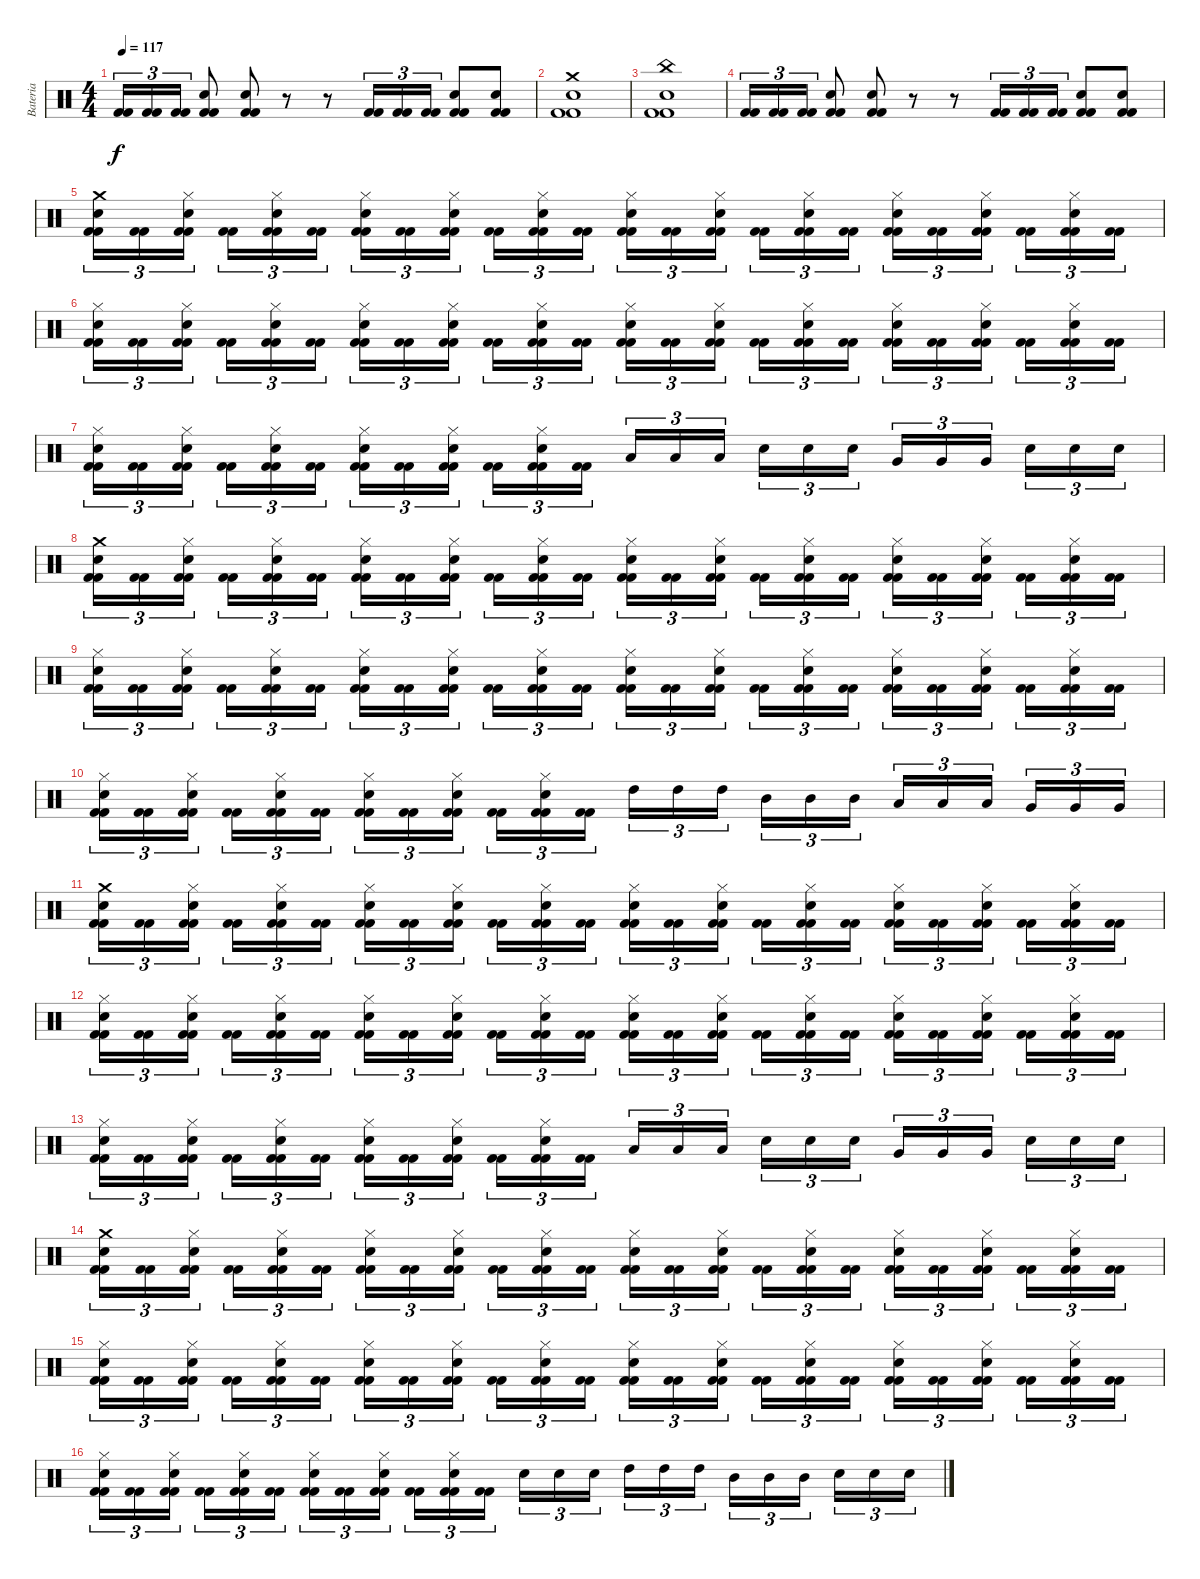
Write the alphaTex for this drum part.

\track ("Bateria" "Bateria") {instrument percussion}
\staff {score}
\articulation defaults
\ts (4 4)
\tempo 117
\clef neutral
\ks c
("Kick (hit) 2" "Kick (hit) 2").16{tu (3 2) dy f} ("Kick (hit) 2" "Kick (hit) 2").16{tu (3 2)} ("Kick (hit) 2" "Kick (hit) 2").16{tu (3 2)} ("Kick (hit) 2" "Kick (hit) 2" "Snare (hit) 2").8 ("Kick (hit) 2" "Kick (hit) 2" "Snare (hit) 2").8 r.8 r.8 ("Kick (hit) 2" "Kick (hit) 2").16{tu (3 2)} ("Kick (hit) 2" "Kick (hit) 2").16{tu (3 2)} ("Kick (hit) 2" "Kick (hit) 2").16{tu (3 2)} ("Kick (hit) 2" "Kick (hit) 2" "Snare (hit) 2").8 ("Kick (hit) 2" "Kick (hit) 2" "Snare (hit) 2").8 |
("Kick (hit) 2" "Kick (hit) 2" "Snare (hit) 2" "Crash medium (hit)").1 |
("Kick (hit) 2" "Kick (hit) 2" "Snare (hit) 2" "China (hit)").1 |
("Kick (hit) 2" "Kick (hit) 2").16{tu (3 2)} ("Kick (hit) 2" "Kick (hit) 2").16{tu (3 2)} ("Kick (hit) 2" "Kick (hit) 2").16{tu (3 2)} ("Kick (hit) 2" "Kick (hit) 2" "Snare (hit) 2").8 ("Kick (hit) 2" "Kick (hit) 2" "Snare (hit) 2").8 r.8 r.8 ("Kick (hit) 2" "Kick (hit) 2").16{tu (3 2)} ("Kick (hit) 2" "Kick (hit) 2").16{tu (3 2)} ("Kick (hit) 2" "Kick (hit) 2").16{tu (3 2)} ("Kick (hit) 2" "Kick (hit) 2" "Snare (hit) 2").8 ("Kick (hit) 2" "Kick (hit) 2" "Snare (hit) 2").8 |
("Kick (hit) 2" "Kick (hit) 2" "Snare (hit) 2" "Crash medium (hit)").16{tu (3 2)} ("Kick (hit) 2" "Kick (hit) 2").16{tu (3 2)} ("Kick (hit) 2" "Kick (hit) 2" "Snare (hit) 2" "Hi-Hat (closed)").16{tu (3 2)} ("Kick (hit) 2" "Kick (hit) 2").16{tu (3 2)} ("Kick (hit) 2" "Kick (hit) 2" "Snare (hit) 2" "Hi-Hat (closed)").16{tu (3 2)} ("Kick (hit) 2" "Kick (hit) 2").16{tu (3 2)} ("Kick (hit) 2" "Kick (hit) 2" "Snare (hit) 2" "Hi-Hat (closed)").16{tu (3 2)} ("Kick (hit) 2" "Kick (hit) 2").16{tu (3 2)} ("Kick (hit) 2" "Kick (hit) 2" "Snare (hit) 2" "Hi-Hat (closed)").16{tu (3 2)} ("Kick (hit) 2" "Kick (hit) 2").16{tu (3 2)} ("Kick (hit) 2" "Kick (hit) 2" "Snare (hit) 2" "Hi-Hat (closed)").16{tu (3 2)} ("Kick (hit) 2" "Kick (hit) 2").16{tu (3 2)} ("Kick (hit) 2" "Kick (hit) 2" "Snare (hit) 2" "Hi-Hat (closed)").16{tu (3 2)} ("Kick (hit) 2" "Kick (hit) 2").16{tu (3 2)} ("Kick (hit) 2" "Kick (hit) 2" "Snare (hit) 2" "Hi-Hat (closed)").16{tu (3 2)} ("Kick (hit) 2" "Kick (hit) 2").16{tu (3 2)} ("Kick (hit) 2" "Kick (hit) 2" "Snare (hit) 2" "Hi-Hat (closed)").16{tu (3 2)} ("Kick (hit) 2" "Kick (hit) 2").16{tu (3 2)} ("Kick (hit) 2" "Kick (hit) 2" "Snare (hit) 2" "Hi-Hat (closed)").16{tu (3 2)} ("Kick (hit) 2" "Kick (hit) 2").16{tu (3 2)} ("Kick (hit) 2" "Kick (hit) 2" "Snare (hit) 2" "Hi-Hat (closed)").16{tu (3 2)} ("Kick (hit) 2" "Kick (hit) 2").16{tu (3 2)} ("Kick (hit) 2" "Kick (hit) 2" "Snare (hit) 2" "Hi-Hat (closed)").16{tu (3 2)} ("Kick (hit) 2" "Kick (hit) 2").16{tu (3 2)} |
("Kick (hit) 2" "Kick (hit) 2" "Snare (hit) 2" "Hi-Hat (closed)").16{tu (3 2)} ("Kick (hit) 2" "Kick (hit) 2").16{tu (3 2)} ("Kick (hit) 2" "Kick (hit) 2" "Snare (hit) 2" "Hi-Hat (closed)").16{tu (3 2)} ("Kick (hit) 2" "Kick (hit) 2").16{tu (3 2)} ("Kick (hit) 2" "Kick (hit) 2" "Snare (hit) 2" "Hi-Hat (closed)").16{tu (3 2)} ("Kick (hit) 2" "Kick (hit) 2").16{tu (3 2)} ("Kick (hit) 2" "Kick (hit) 2" "Snare (hit) 2" "Hi-Hat (closed)").16{tu (3 2)} ("Kick (hit) 2" "Kick (hit) 2").16{tu (3 2)} ("Kick (hit) 2" "Kick (hit) 2" "Snare (hit) 2" "Hi-Hat (closed)").16{tu (3 2)} ("Kick (hit) 2" "Kick (hit) 2").16{tu (3 2)} ("Kick (hit) 2" "Kick (hit) 2" "Snare (hit) 2" "Hi-Hat (closed)").16{tu (3 2)} ("Kick (hit) 2" "Kick (hit) 2").16{tu (3 2)} ("Kick (hit) 2" "Kick (hit) 2" "Snare (hit) 2" "Hi-Hat (closed)").16{tu (3 2)} ("Kick (hit) 2" "Kick (hit) 2").16{tu (3 2)} ("Kick (hit) 2" "Kick (hit) 2" "Snare (hit) 2" "Hi-Hat (closed)").16{tu (3 2)} ("Kick (hit) 2" "Kick (hit) 2").16{tu (3 2)} ("Kick (hit) 2" "Kick (hit) 2" "Snare (hit) 2" "Hi-Hat (closed)").16{tu (3 2)} ("Kick (hit) 2" "Kick (hit) 2").16{tu (3 2)} ("Kick (hit) 2" "Kick (hit) 2" "Snare (hit) 2" "Hi-Hat (closed)").16{tu (3 2)} ("Kick (hit) 2" "Kick (hit) 2").16{tu (3 2)} ("Kick (hit) 2" "Kick (hit) 2" "Snare (hit) 2" "Hi-Hat (closed)").16{tu (3 2)} ("Kick (hit) 2" "Kick (hit) 2").16{tu (3 2)} ("Kick (hit) 2" "Kick (hit) 2" "Snare (hit) 2" "Hi-Hat (closed)").16{tu (3 2)} ("Kick (hit) 2" "Kick (hit) 2").16{tu (3 2)} |
("Kick (hit) 2" "Kick (hit) 2" "Snare (hit) 2" "Hi-Hat (closed)").16{tu (3 2)} ("Kick (hit) 2" "Kick (hit) 2").16{tu (3 2)} ("Kick (hit) 2" "Kick (hit) 2" "Snare (hit) 2" "Hi-Hat (closed)").16{tu (3 2)} ("Kick (hit) 2" "Kick (hit) 2").16{tu (3 2)} ("Kick (hit) 2" "Kick (hit) 2" "Snare (hit) 2" "Hi-Hat (closed)").16{tu (3 2)} ("Kick (hit) 2" "Kick (hit) 2").16{tu (3 2)} ("Kick (hit) 2" "Kick (hit) 2" "Snare (hit) 2" "Hi-Hat (closed)").16{tu (3 2)} ("Kick (hit) 2" "Kick (hit) 2").16{tu (3 2)} ("Kick (hit) 2" "Kick (hit) 2" "Snare (hit) 2" "Hi-Hat (closed)").16{tu (3 2)} ("Kick (hit) 2" "Kick (hit) 2").16{tu (3 2)} ("Kick (hit) 2" "Kick (hit) 2" "Snare (hit) 2" "Hi-Hat (closed)").16{tu (3 2)} ("Kick (hit) 2" "Kick (hit) 2").16{tu (3 2)} "Low Tom (hit)".16{tu (3 2)} "Low Tom (hit)".16{tu (3 2)} "Low Tom (hit)".16{tu (3 2)} "Snare (hit) 2".16{tu (3 2)} "Snare (hit) 2".16{tu (3 2)} "Snare (hit) 2".16{tu (3 2)} "Very Low Tom (hit)".16{tu (3 2)} "Very Low Tom (hit)".16{tu (3 2)} "Very Low Tom (hit)".16{tu (3 2)} "Snare (hit) 2".16{tu (3 2)} "Snare (hit) 2".16{tu (3 2)} "Snare (hit) 2".16{tu (3 2)} |
("Kick (hit) 2" "Kick (hit) 2" "Snare (hit) 2" "Crash medium (hit)").16{tu (3 2)} ("Kick (hit) 2" "Kick (hit) 2").16{tu (3 2)} ("Kick (hit) 2" "Kick (hit) 2" "Snare (hit) 2" "Hi-Hat (closed)").16{tu (3 2)} ("Kick (hit) 2" "Kick (hit) 2").16{tu (3 2)} ("Kick (hit) 2" "Kick (hit) 2" "Snare (hit) 2" "Hi-Hat (closed)").16{tu (3 2)} ("Kick (hit) 2" "Kick (hit) 2").16{tu (3 2)} ("Kick (hit) 2" "Kick (hit) 2" "Snare (hit) 2" "Hi-Hat (closed)").16{tu (3 2)} ("Kick (hit) 2" "Kick (hit) 2").16{tu (3 2)} ("Kick (hit) 2" "Kick (hit) 2" "Snare (hit) 2" "Hi-Hat (closed)").16{tu (3 2)} ("Kick (hit) 2" "Kick (hit) 2").16{tu (3 2)} ("Kick (hit) 2" "Kick (hit) 2" "Snare (hit) 2" "Hi-Hat (closed)").16{tu (3 2)} ("Kick (hit) 2" "Kick (hit) 2").16{tu (3 2)} ("Kick (hit) 2" "Kick (hit) 2" "Snare (hit) 2" "Hi-Hat (closed)").16{tu (3 2)} ("Kick (hit) 2" "Kick (hit) 2").16{tu (3 2)} ("Kick (hit) 2" "Kick (hit) 2" "Snare (hit) 2" "Hi-Hat (closed)").16{tu (3 2)} ("Kick (hit) 2" "Kick (hit) 2").16{tu (3 2)} ("Kick (hit) 2" "Kick (hit) 2" "Snare (hit) 2" "Hi-Hat (closed)").16{tu (3 2)} ("Kick (hit) 2" "Kick (hit) 2").16{tu (3 2)} ("Kick (hit) 2" "Kick (hit) 2" "Snare (hit) 2" "Hi-Hat (closed)").16{tu (3 2)} ("Kick (hit) 2" "Kick (hit) 2").16{tu (3 2)} ("Kick (hit) 2" "Kick (hit) 2" "Snare (hit) 2" "Hi-Hat (closed)").16{tu (3 2)} ("Kick (hit) 2" "Kick (hit) 2").16{tu (3 2)} ("Kick (hit) 2" "Kick (hit) 2" "Snare (hit) 2" "Hi-Hat (closed)").16{tu (3 2)} ("Kick (hit) 2" "Kick (hit) 2").16{tu (3 2)} |
("Kick (hit) 2" "Kick (hit) 2" "Snare (hit) 2" "Hi-Hat (closed)").16{tu (3 2)} ("Kick (hit) 2" "Kick (hit) 2").16{tu (3 2)} ("Kick (hit) 2" "Kick (hit) 2" "Snare (hit) 2" "Hi-Hat (closed)").16{tu (3 2)} ("Kick (hit) 2" "Kick (hit) 2").16{tu (3 2)} ("Kick (hit) 2" "Kick (hit) 2" "Snare (hit) 2" "Hi-Hat (closed)").16{tu (3 2)} ("Kick (hit) 2" "Kick (hit) 2").16{tu (3 2)} ("Kick (hit) 2" "Kick (hit) 2" "Snare (hit) 2" "Hi-Hat (closed)").16{tu (3 2)} ("Kick (hit) 2" "Kick (hit) 2").16{tu (3 2)} ("Kick (hit) 2" "Kick (hit) 2" "Snare (hit) 2" "Hi-Hat (closed)").16{tu (3 2)} ("Kick (hit) 2" "Kick (hit) 2").16{tu (3 2)} ("Kick (hit) 2" "Kick (hit) 2" "Snare (hit) 2" "Hi-Hat (closed)").16{tu (3 2)} ("Kick (hit) 2" "Kick (hit) 2").16{tu (3 2)} ("Kick (hit) 2" "Kick (hit) 2" "Snare (hit) 2" "Hi-Hat (closed)").16{tu (3 2)} ("Kick (hit) 2" "Kick (hit) 2").16{tu (3 2)} ("Kick (hit) 2" "Kick (hit) 2" "Snare (hit) 2" "Hi-Hat (closed)").16{tu (3 2)} ("Kick (hit) 2" "Kick (hit) 2").16{tu (3 2)} ("Kick (hit) 2" "Kick (hit) 2" "Snare (hit) 2" "Hi-Hat (closed)").16{tu (3 2)} ("Kick (hit) 2" "Kick (hit) 2").16{tu (3 2)} ("Kick (hit) 2" "Kick (hit) 2" "Snare (hit) 2" "Hi-Hat (closed)").16{tu (3 2)} ("Kick (hit) 2" "Kick (hit) 2").16{tu (3 2)} ("Kick (hit) 2" "Kick (hit) 2" "Snare (hit) 2" "Hi-Hat (closed)").16{tu (3 2)} ("Kick (hit) 2" "Kick (hit) 2").16{tu (3 2)} ("Kick (hit) 2" "Kick (hit) 2" "Snare (hit) 2" "Hi-Hat (closed)").16{tu (3 2)} ("Kick (hit) 2" "Kick (hit) 2").16{tu (3 2)} |
("Kick (hit) 2" "Kick (hit) 2" "Snare (hit) 2" "Hi-Hat (closed)").16{tu (3 2)} ("Kick (hit) 2" "Kick (hit) 2").16{tu (3 2)} ("Kick (hit) 2" "Kick (hit) 2" "Snare (hit) 2" "Hi-Hat (closed)").16{tu (3 2)} ("Kick (hit) 2" "Kick (hit) 2").16{tu (3 2)} ("Kick (hit) 2" "Kick (hit) 2" "Snare (hit) 2" "Hi-Hat (closed)").16{tu (3 2)} ("Kick (hit) 2" "Kick (hit) 2").16{tu (3 2)} ("Kick (hit) 2" "Kick (hit) 2" "Snare (hit) 2" "Hi-Hat (closed)").16{tu (3 2)} ("Kick (hit) 2" "Kick (hit) 2").16{tu (3 2)} ("Kick (hit) 2" "Kick (hit) 2" "Snare (hit) 2" "Hi-Hat (closed)").16{tu (3 2)} ("Kick (hit) 2" "Kick (hit) 2").16{tu (3 2)} ("Kick (hit) 2" "Kick (hit) 2" "Snare (hit) 2" "Hi-Hat (closed)").16{tu (3 2)} ("Kick (hit) 2" "Kick (hit) 2").16{tu (3 2)} "High Tom (hit)".16{tu (3 2)} "High Tom (hit)".16{tu (3 2)} "High Tom (hit)".16{tu (3 2)} "Mid Tom (hit)".16{tu (3 2)} "Mid Tom (hit)".16{tu (3 2)} "Mid Tom (hit)".16{tu (3 2)} "Low Tom (hit)".16{tu (3 2)} "Low Tom (hit)".16{tu (3 2)} "Low Tom (hit)".16{tu (3 2)} "Very Low Tom (hit)".16{tu (3 2)} "Very Low Tom (hit)".16{tu (3 2)} "Very Low Tom (hit)".16{tu (3 2)} |
("Kick (hit) 2" "Kick (hit) 2" "Snare (hit) 2" "Crash medium (hit)").16{tu (3 2)} ("Kick (hit) 2" "Kick (hit) 2").16{tu (3 2)} ("Kick (hit) 2" "Kick (hit) 2" "Snare (hit) 2" "Hi-Hat (closed)").16{tu (3 2)} ("Kick (hit) 2" "Kick (hit) 2").16{tu (3 2)} ("Kick (hit) 2" "Kick (hit) 2" "Snare (hit) 2" "Hi-Hat (closed)").16{tu (3 2)} ("Kick (hit) 2" "Kick (hit) 2").16{tu (3 2)} ("Kick (hit) 2" "Kick (hit) 2" "Snare (hit) 2" "Hi-Hat (closed)").16{tu (3 2)} ("Kick (hit) 2" "Kick (hit) 2").16{tu (3 2)} ("Kick (hit) 2" "Kick (hit) 2" "Snare (hit) 2" "Hi-Hat (closed)").16{tu (3 2)} ("Kick (hit) 2" "Kick (hit) 2").16{tu (3 2)} ("Kick (hit) 2" "Kick (hit) 2" "Snare (hit) 2" "Hi-Hat (closed)").16{tu (3 2)} ("Kick (hit) 2" "Kick (hit) 2").16{tu (3 2)} ("Kick (hit) 2" "Kick (hit) 2" "Snare (hit) 2" "Hi-Hat (closed)").16{tu (3 2)} ("Kick (hit) 2" "Kick (hit) 2").16{tu (3 2)} ("Kick (hit) 2" "Kick (hit) 2" "Snare (hit) 2" "Hi-Hat (closed)").16{tu (3 2)} ("Kick (hit) 2" "Kick (hit) 2").16{tu (3 2)} ("Kick (hit) 2" "Kick (hit) 2" "Snare (hit) 2" "Hi-Hat (closed)").16{tu (3 2)} ("Kick (hit) 2" "Kick (hit) 2").16{tu (3 2)} ("Kick (hit) 2" "Kick (hit) 2" "Snare (hit) 2" "Hi-Hat (closed)").16{tu (3 2)} ("Kick (hit) 2" "Kick (hit) 2").16{tu (3 2)} ("Kick (hit) 2" "Kick (hit) 2" "Snare (hit) 2" "Hi-Hat (closed)").16{tu (3 2)} ("Kick (hit) 2" "Kick (hit) 2").16{tu (3 2)} ("Kick (hit) 2" "Kick (hit) 2" "Snare (hit) 2" "Hi-Hat (closed)").16{tu (3 2)} ("Kick (hit) 2" "Kick (hit) 2").16{tu (3 2)} |
("Kick (hit) 2" "Kick (hit) 2" "Snare (hit) 2" "Hi-Hat (closed)").16{tu (3 2)} ("Kick (hit) 2" "Kick (hit) 2").16{tu (3 2)} ("Kick (hit) 2" "Kick (hit) 2" "Snare (hit) 2" "Hi-Hat (closed)").16{tu (3 2)} ("Kick (hit) 2" "Kick (hit) 2").16{tu (3 2)} ("Kick (hit) 2" "Kick (hit) 2" "Snare (hit) 2" "Hi-Hat (closed)").16{tu (3 2)} ("Kick (hit) 2" "Kick (hit) 2").16{tu (3 2)} ("Kick (hit) 2" "Kick (hit) 2" "Snare (hit) 2" "Hi-Hat (closed)").16{tu (3 2)} ("Kick (hit) 2" "Kick (hit) 2").16{tu (3 2)} ("Kick (hit) 2" "Kick (hit) 2" "Snare (hit) 2" "Hi-Hat (closed)").16{tu (3 2)} ("Kick (hit) 2" "Kick (hit) 2").16{tu (3 2)} ("Kick (hit) 2" "Kick (hit) 2" "Snare (hit) 2" "Hi-Hat (closed)").16{tu (3 2)} ("Kick (hit) 2" "Kick (hit) 2").16{tu (3 2)} ("Kick (hit) 2" "Kick (hit) 2" "Snare (hit) 2" "Hi-Hat (closed)").16{tu (3 2)} ("Kick (hit) 2" "Kick (hit) 2").16{tu (3 2)} ("Kick (hit) 2" "Kick (hit) 2" "Snare (hit) 2" "Hi-Hat (closed)").16{tu (3 2)} ("Kick (hit) 2" "Kick (hit) 2").16{tu (3 2)} ("Kick (hit) 2" "Kick (hit) 2" "Snare (hit) 2" "Hi-Hat (closed)").16{tu (3 2)} ("Kick (hit) 2" "Kick (hit) 2").16{tu (3 2)} ("Kick (hit) 2" "Kick (hit) 2" "Snare (hit) 2" "Hi-Hat (closed)").16{tu (3 2)} ("Kick (hit) 2" "Kick (hit) 2").16{tu (3 2)} ("Kick (hit) 2" "Kick (hit) 2" "Snare (hit) 2" "Hi-Hat (closed)").16{tu (3 2)} ("Kick (hit) 2" "Kick (hit) 2").16{tu (3 2)} ("Kick (hit) 2" "Kick (hit) 2" "Snare (hit) 2" "Hi-Hat (closed)").16{tu (3 2)} ("Kick (hit) 2" "Kick (hit) 2").16{tu (3 2)} |
("Kick (hit) 2" "Kick (hit) 2" "Snare (hit) 2" "Hi-Hat (closed)").16{tu (3 2)} ("Kick (hit) 2" "Kick (hit) 2").16{tu (3 2)} ("Kick (hit) 2" "Kick (hit) 2" "Snare (hit) 2" "Hi-Hat (closed)").16{tu (3 2)} ("Kick (hit) 2" "Kick (hit) 2").16{tu (3 2)} ("Kick (hit) 2" "Kick (hit) 2" "Snare (hit) 2" "Hi-Hat (closed)").16{tu (3 2)} ("Kick (hit) 2" "Kick (hit) 2").16{tu (3 2)} ("Kick (hit) 2" "Kick (hit) 2" "Snare (hit) 2" "Hi-Hat (closed)").16{tu (3 2)} ("Kick (hit) 2" "Kick (hit) 2").16{tu (3 2)} ("Kick (hit) 2" "Kick (hit) 2" "Snare (hit) 2" "Hi-Hat (closed)").16{tu (3 2)} ("Kick (hit) 2" "Kick (hit) 2").16{tu (3 2)} ("Kick (hit) 2" "Kick (hit) 2" "Snare (hit) 2" "Hi-Hat (closed)").16{tu (3 2)} ("Kick (hit) 2" "Kick (hit) 2").16{tu (3 2)} "Low Tom (hit)".16{tu (3 2)} "Low Tom (hit)".16{tu (3 2)} "Low Tom (hit)".16{tu (3 2)} "Snare (hit) 2".16{tu (3 2)} "Snare (hit) 2".16{tu (3 2)} "Snare (hit) 2".16{tu (3 2)} "Very Low Tom (hit)".16{tu (3 2)} "Very Low Tom (hit)".16{tu (3 2)} "Very Low Tom (hit)".16{tu (3 2)} "Snare (hit) 2".16{tu (3 2)} "Snare (hit) 2".16{tu (3 2)} "Snare (hit) 2".16{tu (3 2)} |
("Kick (hit) 2" "Kick (hit) 2" "Snare (hit) 2" "Crash medium (hit)").16{tu (3 2)} ("Kick (hit) 2" "Kick (hit) 2").16{tu (3 2)} ("Kick (hit) 2" "Kick (hit) 2" "Snare (hit) 2" "Hi-Hat (closed)").16{tu (3 2)} ("Kick (hit) 2" "Kick (hit) 2").16{tu (3 2)} ("Kick (hit) 2" "Kick (hit) 2" "Snare (hit) 2" "Hi-Hat (closed)").16{tu (3 2)} ("Kick (hit) 2" "Kick (hit) 2").16{tu (3 2)} ("Kick (hit) 2" "Kick (hit) 2" "Snare (hit) 2" "Hi-Hat (closed)").16{tu (3 2)} ("Kick (hit) 2" "Kick (hit) 2").16{tu (3 2)} ("Kick (hit) 2" "Kick (hit) 2" "Snare (hit) 2" "Hi-Hat (closed)").16{tu (3 2)} ("Kick (hit) 2" "Kick (hit) 2").16{tu (3 2)} ("Kick (hit) 2" "Kick (hit) 2" "Snare (hit) 2" "Hi-Hat (closed)").16{tu (3 2)} ("Kick (hit) 2" "Kick (hit) 2").16{tu (3 2)} ("Kick (hit) 2" "Kick (hit) 2" "Snare (hit) 2" "Hi-Hat (closed)").16{tu (3 2)} ("Kick (hit) 2" "Kick (hit) 2").16{tu (3 2)} ("Kick (hit) 2" "Kick (hit) 2" "Snare (hit) 2" "Hi-Hat (closed)").16{tu (3 2)} ("Kick (hit) 2" "Kick (hit) 2").16{tu (3 2)} ("Kick (hit) 2" "Kick (hit) 2" "Snare (hit) 2" "Hi-Hat (closed)").16{tu (3 2)} ("Kick (hit) 2" "Kick (hit) 2").16{tu (3 2)} ("Kick (hit) 2" "Kick (hit) 2" "Snare (hit) 2" "Hi-Hat (closed)").16{tu (3 2)} ("Kick (hit) 2" "Kick (hit) 2").16{tu (3 2)} ("Kick (hit) 2" "Kick (hit) 2" "Snare (hit) 2" "Hi-Hat (closed)").16{tu (3 2)} ("Kick (hit) 2" "Kick (hit) 2").16{tu (3 2)} ("Kick (hit) 2" "Kick (hit) 2" "Snare (hit) 2" "Hi-Hat (closed)").16{tu (3 2)} ("Kick (hit) 2" "Kick (hit) 2").16{tu (3 2)} |
("Kick (hit) 2" "Kick (hit) 2" "Snare (hit) 2" "Hi-Hat (closed)").16{tu (3 2)} ("Kick (hit) 2" "Kick (hit) 2").16{tu (3 2)} ("Kick (hit) 2" "Kick (hit) 2" "Snare (hit) 2" "Hi-Hat (closed)").16{tu (3 2)} ("Kick (hit) 2" "Kick (hit) 2").16{tu (3 2)} ("Kick (hit) 2" "Kick (hit) 2" "Snare (hit) 2" "Hi-Hat (closed)").16{tu (3 2)} ("Kick (hit) 2" "Kick (hit) 2").16{tu (3 2)} ("Kick (hit) 2" "Kick (hit) 2" "Snare (hit) 2" "Hi-Hat (closed)").16{tu (3 2)} ("Kick (hit) 2" "Kick (hit) 2").16{tu (3 2)} ("Kick (hit) 2" "Kick (hit) 2" "Snare (hit) 2" "Hi-Hat (closed)").16{tu (3 2)} ("Kick (hit) 2" "Kick (hit) 2").16{tu (3 2)} ("Kick (hit) 2" "Kick (hit) 2" "Snare (hit) 2" "Hi-Hat (closed)").16{tu (3 2)} ("Kick (hit) 2" "Kick (hit) 2").16{tu (3 2)} ("Kick (hit) 2" "Kick (hit) 2" "Snare (hit) 2" "Hi-Hat (closed)").16{tu (3 2)} ("Kick (hit) 2" "Kick (hit) 2").16{tu (3 2)} ("Kick (hit) 2" "Kick (hit) 2" "Snare (hit) 2" "Hi-Hat (closed)").16{tu (3 2)} ("Kick (hit) 2" "Kick (hit) 2").16{tu (3 2)} ("Kick (hit) 2" "Kick (hit) 2" "Snare (hit) 2" "Hi-Hat (closed)").16{tu (3 2)} ("Kick (hit) 2" "Kick (hit) 2").16{tu (3 2)} ("Kick (hit) 2" "Kick (hit) 2" "Snare (hit) 2" "Hi-Hat (closed)").16{tu (3 2)} ("Kick (hit) 2" "Kick (hit) 2").16{tu (3 2)} ("Kick (hit) 2" "Kick (hit) 2" "Snare (hit) 2" "Hi-Hat (closed)").16{tu (3 2)} ("Kick (hit) 2" "Kick (hit) 2").16{tu (3 2)} ("Kick (hit) 2" "Kick (hit) 2" "Snare (hit) 2" "Hi-Hat (closed)").16{tu (3 2)} ("Kick (hit) 2" "Kick (hit) 2").16{tu (3 2)} |
("Kick (hit) 2" "Kick (hit) 2" "Snare (hit) 2" "Hi-Hat (closed)").16{tu (3 2)} ("Kick (hit) 2" "Kick (hit) 2").16{tu (3 2)} ("Kick (hit) 2" "Kick (hit) 2" "Snare (hit) 2" "Hi-Hat (closed)").16{tu (3 2)} ("Kick (hit) 2" "Kick (hit) 2").16{tu (3 2)} ("Kick (hit) 2" "Kick (hit) 2" "Snare (hit) 2" "Hi-Hat (closed)").16{tu (3 2)} ("Kick (hit) 2" "Kick (hit) 2").16{tu (3 2)} ("Kick (hit) 2" "Kick (hit) 2" "Snare (hit) 2" "Hi-Hat (closed)").16{tu (3 2)} ("Kick (hit) 2" "Kick (hit) 2").16{tu (3 2)} ("Kick (hit) 2" "Kick (hit) 2" "Snare (hit) 2" "Hi-Hat (closed)").16{tu (3 2)} ("Kick (hit) 2" "Kick (hit) 2").16{tu (3 2)} ("Kick (hit) 2" "Kick (hit) 2" "Snare (hit) 2" "Hi-Hat (closed)").16{tu (3 2)} ("Kick (hit) 2" "Kick (hit) 2").16{tu (3 2)} "Snare (hit) 2".16{tu (3 2)} "Snare (hit) 2".16{tu (3 2)} "Snare (hit) 2".16{tu (3 2)} "High Tom (hit)".16{tu (3 2)} "High Tom (hit)".16{tu (3 2)} "High Tom (hit)".16{tu (3 2)} "Mid Tom (hit)".16{tu (3 2)} "Mid Tom (hit)".16{tu (3 2)} "Mid Tom (hit)".16{tu (3 2)} "Snare (hit) 2".16{tu (3 2)} "Snare (hit) 2".16{tu (3 2)} "Snare (hit) 2".16{tu (3 2)}
